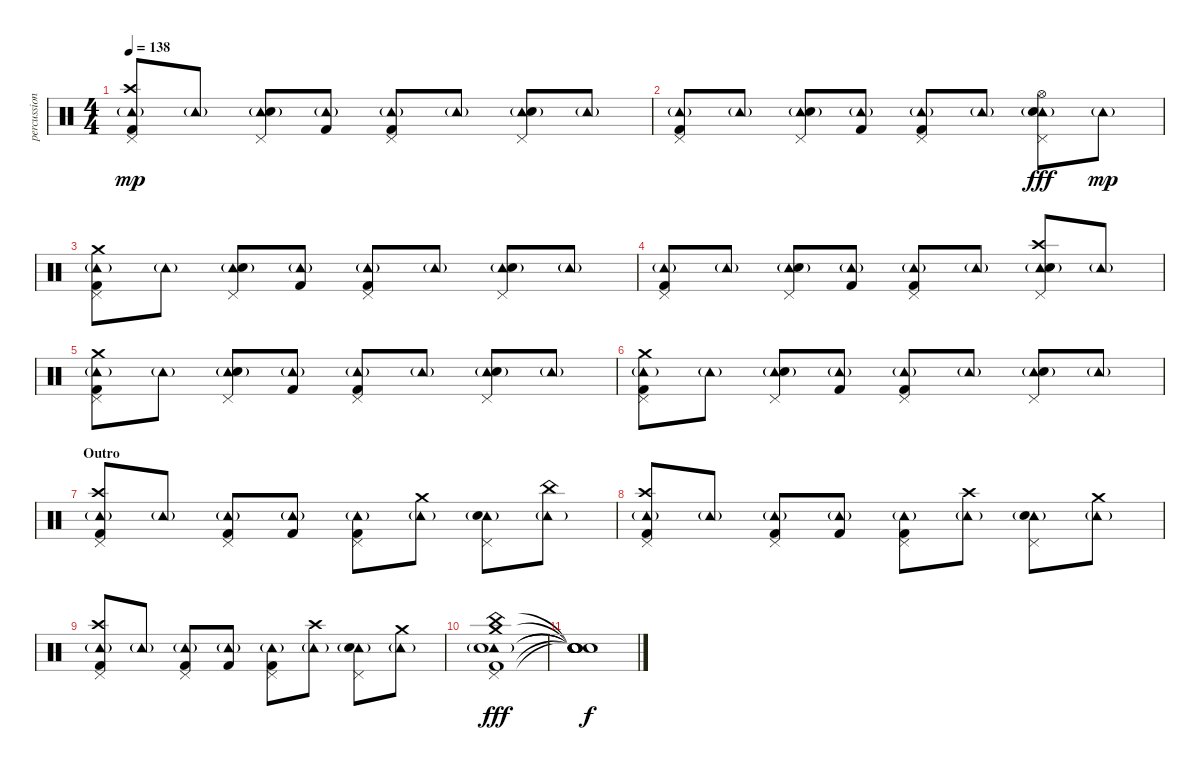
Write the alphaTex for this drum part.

\track ("percussion - vom" "percussion") {instrument percussion}
\staff {score}
\articulation defaults
\ts (4 4)
\tempo 138
\clef neutral
\ks c
("Pedal Hi-Hat (hit)" "Tambourine (hit)"{g} "Crash high (hit)" "Kick (hit) 2").8{dy mp} "Tambourine (hit)"{g}.8 ("Pedal Hi-Hat (hit)" "Tambourine (hit)"{g} "Snare (hit) 2").8 ("Tambourine (hit)"{g} "Kick (hit) 2").8 ("Pedal Hi-Hat (hit)" "Tambourine (hit)"{g} "Kick (hit) 2").8 "Tambourine (hit)"{g}.8 ("Pedal Hi-Hat (hit)" "Tambourine (hit)"{g} "Snare (hit) 2").8 "Tambourine (hit)"{g}.8 |
("Pedal Hi-Hat (hit)" "Tambourine (hit)"{g} "Kick (hit) 2").8 "Tambourine (hit)"{g}.8 ("Pedal Hi-Hat (hit)" "Tambourine (hit)"{g} "Snare (hit) 2").8 ("Tambourine (hit)"{g} "Kick (hit) 2").8 ("Pedal Hi-Hat (hit)" "Tambourine (hit)"{g} "Kick (hit) 2").8 "Tambourine (hit)"{g}.8 ("Pedal Hi-Hat (hit)" "Tambourine (hit)"{g} "Hi-Hat (open)" "Snare (hit) 2").8{dy fff} "Tambourine (hit)"{g}.8{dy mp} |
("Pedal Hi-Hat (hit)" "Tambourine (hit)"{g} "Crash medium (hit)" "Kick (hit) 2").8 "Tambourine (hit)"{g}.8 ("Pedal Hi-Hat (hit)" "Tambourine (hit)"{g} "Snare (hit) 2").8 ("Tambourine (hit)"{g} "Kick (hit) 2").8 ("Pedal Hi-Hat (hit)" "Tambourine (hit)"{g} "Kick (hit) 2").8 "Tambourine (hit)"{g}.8 ("Pedal Hi-Hat (hit)" "Tambourine (hit)"{g} "Snare (hit) 2").8 "Tambourine (hit)"{g}.8 |
("Pedal Hi-Hat (hit)" "Tambourine (hit)"{g} "Kick (hit) 2").8 "Tambourine (hit)"{g}.8 ("Pedal Hi-Hat (hit)" "Tambourine (hit)"{g} "Snare (hit) 2").8 ("Tambourine (hit)"{g} "Kick (hit) 2").8 ("Pedal Hi-Hat (hit)" "Tambourine (hit)"{g} "Kick (hit) 2").8 "Tambourine (hit)"{g}.8 ("Pedal Hi-Hat (hit)" "Tambourine (hit)"{g} "Crash high (hit)" "Snare (hit) 2").8 "Tambourine (hit)"{g}.8 |
("Pedal Hi-Hat (hit)" "Tambourine (hit)"{g} "Crash medium (hit)" "Kick (hit) 2").8 "Tambourine (hit)"{g}.8 ("Pedal Hi-Hat (hit)" "Tambourine (hit)"{g} "Snare (hit) 2").8 ("Tambourine (hit)"{g} "Kick (hit) 2").8 ("Pedal Hi-Hat (hit)" "Tambourine (hit)"{g} "Kick (hit) 2").8 "Tambourine (hit)"{g}.8 ("Pedal Hi-Hat (hit)" "Tambourine (hit)"{g} "Snare (hit) 2").8 "Tambourine (hit)"{g}.8 |
("Pedal Hi-Hat (hit)" "Tambourine (hit)"{g} "Crash medium (hit)" "Kick (hit) 2").8 "Tambourine (hit)"{g}.8 ("Pedal Hi-Hat (hit)" "Tambourine (hit)"{g} "Snare (hit) 2").8 ("Tambourine (hit)"{g} "Kick (hit) 2").8 ("Pedal Hi-Hat (hit)" "Tambourine (hit)"{g} "Kick (hit) 2").8 "Tambourine (hit)"{g}.8 ("Pedal Hi-Hat (hit)" "Tambourine (hit)"{g} "Snare (hit) 2").8 "Tambourine (hit)"{g}.8 |
\section ("" "Outro")
("Pedal Hi-Hat (hit)" "Tambourine (hit)"{g} "Crash high (hit)" "Kick (hit) 2").8 "Tambourine (hit)"{g}.8 ("Pedal Hi-Hat (hit)" "Tambourine (hit)"{g} "Kick (hit) 2").8 ("Tambourine (hit)"{g} "Kick (hit) 2").8 ("Pedal Hi-Hat (hit)" "Tambourine (hit)"{g} "Kick (hit) 2").8 ("Tambourine (hit)"{g} "Crash medium (hit)").8 ("Pedal Hi-Hat (hit)" "Tambourine (hit)"{g} "Snare (hit) 2").8 ("Tambourine (hit)"{g} "China (hit)").8 |
("Pedal Hi-Hat (hit)" "Tambourine (hit)"{g} "Crash high (hit)" "Kick (hit) 2").8 "Tambourine (hit)"{g}.8 ("Pedal Hi-Hat (hit)" "Tambourine (hit)"{g} "Kick (hit) 2").8 ("Tambourine (hit)"{g} "Kick (hit) 2").8 ("Pedal Hi-Hat (hit)" "Tambourine (hit)"{g} "Kick (hit) 2").8 ("Tambourine (hit)"{g} "Crash high (hit)").8 ("Pedal Hi-Hat (hit)" "Tambourine (hit)"{g} "Snare (hit) 2").8 ("Tambourine (hit)"{g} "Crash medium (hit)").8 |
("Pedal Hi-Hat (hit)" "Tambourine (hit)"{g} "Crash high (hit)" "Kick (hit) 2").8 "Tambourine (hit)"{g}.8 ("Pedal Hi-Hat (hit)" "Tambourine (hit)"{g} "Kick (hit) 2").8 ("Tambourine (hit)"{g} "Kick (hit) 2").8 ("Pedal Hi-Hat (hit)" "Tambourine (hit)"{g} "Kick (hit) 2").8 ("Tambourine (hit)"{g} "Crash high (hit)").8 ("Pedal Hi-Hat (hit)" "Tambourine (hit)"{g} "Snare (hit) 2").8 ("Tambourine (hit)"{g} "Crash medium (hit)").8 |
("Pedal Hi-Hat (hit)" "Tambourine (hit)" "Crash medium (hit)" "China (hit)" "Snare (hit) 2"{g} "Kick (hit) 2").1{dy fff volume 0} |
("Snare (hit)"{t} "Snare (hit)"{t} "Snare (hit)"{t} "Snare (hit)"{t} "Snare (hit)"{t} "Snare (hit)"{t}).1{dy f}
